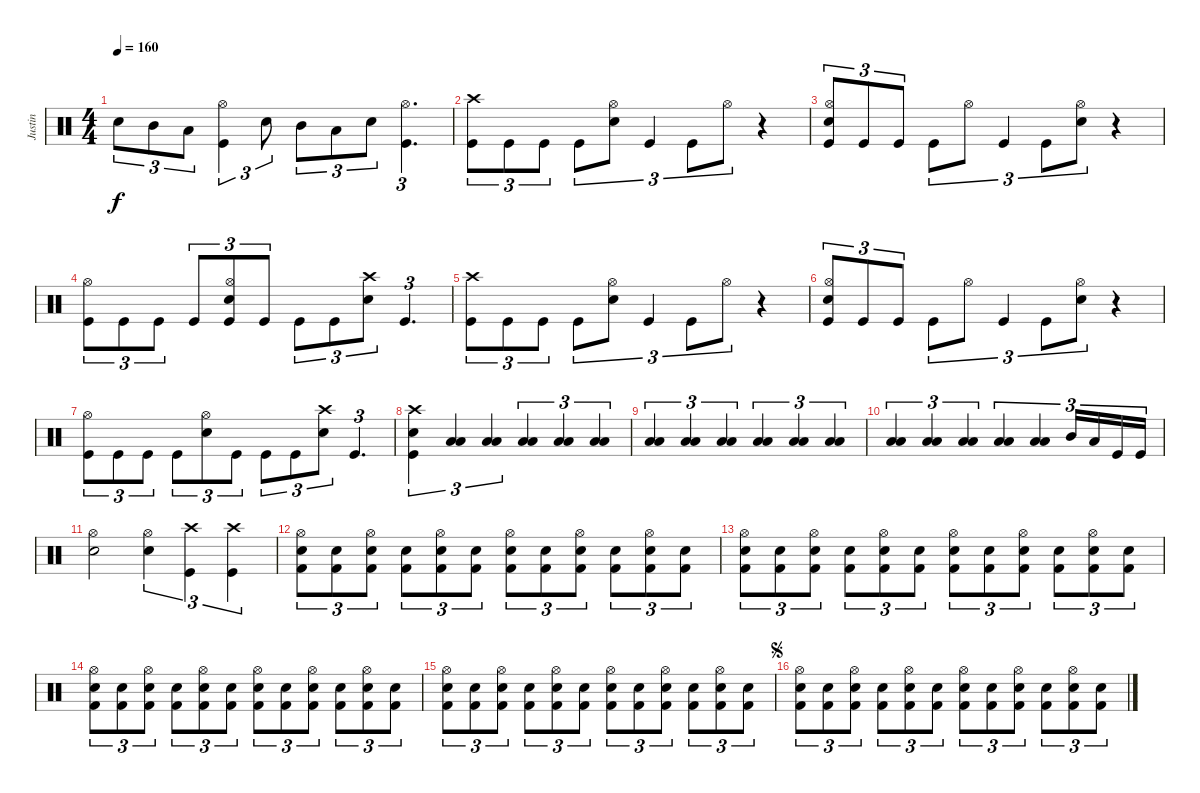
\track ("Justin" "Justin") {instrument percussion}
\staff {score}
\articulation defaults
\ts (4 4)
\tempo 160
\clef neutral
\ks c "Electric Snare (hit)".8{tu (3 2) dy f} "Mid Tom (hit)".8{tu (3 2)} "Low Tom (hit)".8{tu (3 2)}
("Hi-Hat (open)" "Kick (hit)").4{tu (3 2)} "Electric Snare (hit)".8{tu (3 2)} "Mid Tom (hit)".8{tu (3 2)} "Low Tom (hit)".8{tu (3 2)} "Electric Snare (hit)".8{tu (3 2)} ("Hi-Hat (open)" "Kick (hit)").4{d tu (3 2)} |
("Crash high (hit)" "Kick (hit)").8{tu (3 2)} "Kick (hit)".8{tu (3 2)} "Kick (hit)".8{tu (3 2)} "Kick (hit)".8{tu (3 2)} ("Electric Snare (hit)" "Hi-Hat (open)").8{tu (3 2)} "Kick (hit)".4{tu (3 2)} "Kick (hit)".8{tu (3 2)} "Hi-Hat (open)".8{tu (3 2)} r.4 |
("Electric Snare (hit)" "Hi-Hat (open)" "Kick (hit)").8{tu (3 2)} "Kick (hit)".8{tu (3 2)} "Kick (hit)".8{tu (3 2)} "Kick (hit)".8{tu (3 2)} "Hi-Hat (open)".8{tu (3 2)} "Kick (hit)".4{tu (3 2)} "Kick (hit)".8{tu (3 2)} ("Electric Snare (hit)" "Hi-Hat (open)").8{tu (3 2)} r.4 |
("Hi-Hat (open)" "Kick (hit)").8{tu (3 2)} "Kick (hit)".8{tu (3 2)} "Kick (hit)".8{tu (3 2)} "Kick (hit)".8{tu (3 2)} ("Kick (hit)" "Hi-Hat (open)" "Electric Snare (hit)").8{tu (3 2)} "Kick (hit)".8{tu (3 2)} "Kick (hit)".8{tu (3 2)} "Kick (hit)".8{tu (3 2)} ("Crash high (hit)" "Electric Snare (hit)").8{tu (3 2)} "Kick (hit)".4{d tu (3 2)} |
("Crash high (hit)" "Kick (hit)").8{tu (3 2)} "Kick (hit)".8{tu (3 2)} "Kick (hit)".8{tu (3 2)} "Kick (hit)".8{tu (3 2)} ("Electric Snare (hit)" "Hi-Hat (open)").8{tu (3 2)} "Kick (hit)".4{tu (3 2)} "Kick (hit)".8{tu (3 2)} "Hi-Hat (open)".8{tu (3 2)} r.4 |
("Electric Snare (hit)" "Hi-Hat (open)" "Kick (hit)").8{tu (3 2)} "Kick (hit)".8{tu (3 2)} "Kick (hit)".8{tu (3 2)} "Kick (hit)".8{tu (3 2)} "Hi-Hat (open)".8{tu (3 2)} "Kick (hit)".4{tu (3 2)} "Kick (hit)".8{tu (3 2)} ("Electric Snare (hit)" "Hi-Hat (open)").8{tu (3 2)} r.4 |
("Hi-Hat (open)" "Kick (hit)").8{tu (3 2)} "Kick (hit)".8{tu (3 2)} "Kick (hit)".8{tu (3 2)} "Kick (hit)".8{tu (3 2)} ("Hi-Hat (open)" "Electric Snare (hit)").8{tu (3 2)} "Kick (hit)".8{tu (3 2)} "Kick (hit)".8{tu (3 2)} "Kick (hit)".8{tu (3 2)} ("Crash high (hit)" "Electric Snare (hit)").8{tu (3 2)} "Kick (hit)".4{d tu (3 2)} |
("Kick (hit)" "Crash high (hit)" "Electric Snare (hit)").4{tu (3 2)} ("Low Tom (hit)" "Low Floor Tom (hit)").4{tu (3 2)} ("Low Tom (hit)" "Low Floor Tom (hit)").4{tu (3 2)} ("Low Tom (hit)" "Low Floor Tom (hit)").4{tu (3 2)} ("Low Tom (hit)" "Low Floor Tom (hit)").4{tu (3 2)} ("Low Tom (hit)" "Low Floor Tom (hit)").4{tu (3 2)} |
("Low Tom (hit)" "Low Floor Tom (hit)").4{tu (3 2)} ("Low Tom (hit)" "Low Floor Tom (hit)").4{tu (3 2)} ("Low Tom (hit)" "Low Floor Tom (hit)").4{tu (3 2)} ("Low Tom (hit)" "Low Floor Tom (hit)").4{tu (3 2)} ("Low Tom (hit)" "Low Floor Tom (hit)").4{tu (3 2)} ("Low Tom (hit)" "Low Floor Tom (hit)").4{tu (3 2)} |
("Low Tom (hit)" "Low Floor Tom (hit)").4{tu (3 2)} ("Low Tom (hit)" "Low Floor Tom (hit)").4{tu (3 2)} ("Low Tom (hit)" "Low Floor Tom (hit)").4{tu (3 2)} ("Low Tom (hit)" "Low Floor Tom (hit)").4{tu (3 2)} ("Low Tom (hit)" "Low Floor Tom (hit)").4{tu (3 2)} "Mid Tom (hit)".16{tu (3 2)} "Low Tom (hit)".16{tu (3 2)} "Kick (hit)".16{tu (3 2)} "Kick (hit)".16{tu (3 2)} |
("Hi-Hat (open)" "Electric Snare (hit)").2 ("Hi-Hat (open)" "Electric Snare (hit)").4{tu (3 2)} ("Crash high (hit)" "Kick (hit)").4{tu (3 2)} ("Crash high (hit)" "Kick (hit)").4{tu (3 2)} |
("Hi-Hat (open)" "Snare (hit) 2" "Kick (hit) 2").8{tu (3 2)} ("Snare (hit) 2" "Kick (hit) 2").8{tu (3 2)} ("Hi-Hat (open)" "Snare (hit) 2" "Kick (hit) 2").8{tu (3 2)} ("Snare (hit) 2" "Kick (hit) 2").8{tu (3 2)} ("Hi-Hat (open)" "Snare (hit) 2" "Kick (hit) 2").8{tu (3 2)} ("Snare (hit) 2" "Kick (hit) 2").8{tu (3 2)} ("Hi-Hat (open)" "Snare (hit) 2" "Kick (hit) 2").8{tu (3 2)} ("Snare (hit) 2" "Kick (hit) 2").8{tu (3 2)} ("Hi-Hat (open)" "Snare (hit) 2" "Kick (hit) 2").8{tu (3 2)} ("Snare (hit) 2" "Kick (hit) 2").8{tu (3 2)} ("Hi-Hat (open)" "Snare (hit) 2" "Kick (hit) 2").8{tu (3 2)} ("Snare (hit) 2" "Kick (hit) 2").8{tu (3 2)} |
("Hi-Hat (open)" "Snare (hit) 2" "Kick (hit) 2").8{tu (3 2)} ("Snare (hit) 2" "Kick (hit) 2").8{tu (3 2)} ("Hi-Hat (open)" "Snare (hit) 2" "Kick (hit) 2").8{tu (3 2)} ("Snare (hit) 2" "Kick (hit) 2").8{tu (3 2)} ("Hi-Hat (open)" "Snare (hit) 2" "Kick (hit) 2").8{tu (3 2)} ("Snare (hit) 2" "Kick (hit) 2").8{tu (3 2)} ("Hi-Hat (open)" "Snare (hit) 2" "Kick (hit) 2").8{tu (3 2)} ("Snare (hit) 2" "Kick (hit) 2").8{tu (3 2)} ("Hi-Hat (open)" "Snare (hit) 2" "Kick (hit) 2").8{tu (3 2)} ("Snare (hit) 2" "Kick (hit) 2").8{tu (3 2)} ("Hi-Hat (open)" "Snare (hit) 2" "Kick (hit) 2").8{tu (3 2)} ("Snare (hit) 2" "Kick (hit) 2").8{tu (3 2)} |
("Hi-Hat (open)" "Snare (hit) 2" "Kick (hit) 2").8{tu (3 2)} ("Snare (hit) 2" "Kick (hit) 2").8{tu (3 2)} ("Hi-Hat (open)" "Snare (hit) 2" "Kick (hit) 2").8{tu (3 2)} ("Snare (hit) 2" "Kick (hit) 2").8{tu (3 2)} ("Hi-Hat (open)" "Snare (hit) 2" "Kick (hit) 2").8{tu (3 2)} ("Snare (hit) 2" "Kick (hit) 2").8{tu (3 2)} ("Hi-Hat (open)" "Snare (hit) 2" "Kick (hit) 2").8{tu (3 2)} ("Snare (hit) 2" "Kick (hit) 2").8{tu (3 2)} ("Hi-Hat (open)" "Snare (hit) 2" "Kick (hit) 2").8{tu (3 2)} ("Snare (hit) 2" "Kick (hit) 2").8{tu (3 2)} ("Hi-Hat (open)" "Snare (hit) 2" "Kick (hit) 2").8{tu (3 2)} ("Snare (hit) 2" "Kick (hit) 2").8{tu (3 2)} |
("Hi-Hat (open)" "Snare (hit) 2" "Kick (hit) 2").8{tu (3 2)} ("Snare (hit) 2" "Kick (hit) 2").8{tu (3 2)} ("Hi-Hat (open)" "Snare (hit) 2" "Kick (hit) 2").8{tu (3 2)} ("Snare (hit) 2" "Kick (hit) 2").8{tu (3 2)} ("Hi-Hat (open)" "Snare (hit) 2" "Kick (hit) 2").8{tu (3 2)} ("Snare (hit) 2" "Kick (hit) 2").8{tu (3 2)} ("Hi-Hat (open)" "Snare (hit) 2" "Kick (hit) 2").8{tu (3 2)} ("Snare (hit) 2" "Kick (hit) 2").8{tu (3 2)} ("Hi-Hat (open)" "Snare (hit) 2" "Kick (hit) 2").8{tu (3 2)} ("Snare (hit) 2" "Kick (hit) 2").8{tu (3 2)} ("Hi-Hat (open)" "Snare (hit) 2" "Kick (hit) 2").8{tu (3 2)} ("Snare (hit) 2" "Kick (hit) 2").8{tu (3 2)} |
\jump segno
("Hi-Hat (open)" "Snare (hit) 2" "Kick (hit) 2").8{tu (3 2)} ("Snare (hit) 2" "Kick (hit) 2").8{tu (3 2)} ("Hi-Hat (open)" "Snare (hit) 2" "Kick (hit) 2").8{tu (3 2)} ("Snare (hit) 2" "Kick (hit) 2").8{tu (3 2)} ("Hi-Hat (open)" "Snare (hit) 2" "Kick (hit) 2").8{tu (3 2)} ("Snare (hit) 2" "Kick (hit) 2").8{tu (3 2)} ("Hi-Hat (open)" "Snare (hit) 2" "Kick (hit) 2").8{tu (3 2)} ("Snare (hit) 2" "Kick (hit) 2").8{tu (3 2)} ("Hi-Hat (open)" "Snare (hit) 2" "Kick (hit) 2").8{tu (3 2)} ("Snare (hit) 2" "Kick (hit) 2").8{tu (3 2)} ("Hi-Hat (open)" "Snare (hit) 2" "Kick (hit) 2").8{tu (3 2)} ("Snare (hit) 2" "Kick (hit) 2").8{tu (3 2)}
